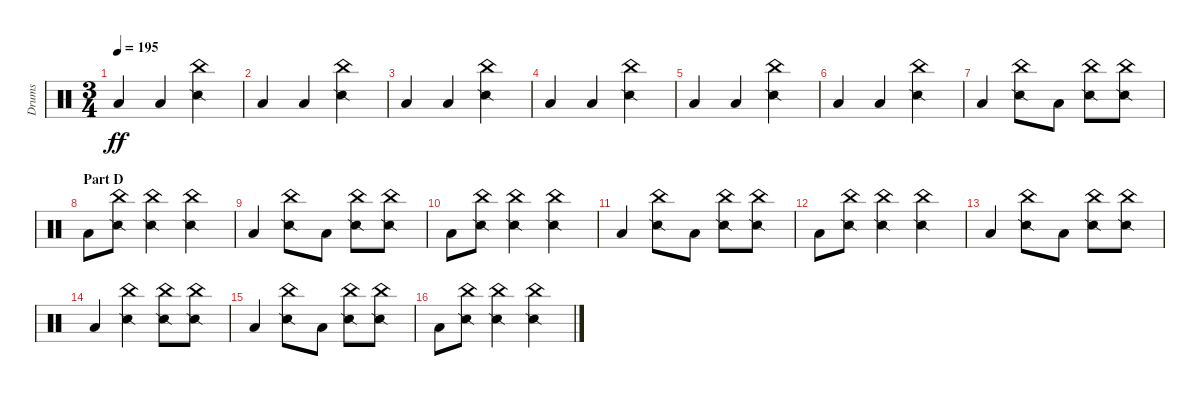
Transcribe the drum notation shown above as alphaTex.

\track ("Drums" "Drums") {instrument percussion}
\staff {score}
\articulation defaults
\ts (3 4)
\tempo 195
\clef neutral
\ks c "Low Floor Tom (hit)".4{dy ff} "Low Floor Tom (hit)".4
("China (hit)" "Snare (side stick) 2").4 |
"Low Floor Tom (hit)".4 "Low Floor Tom (hit)".4 ("China (hit)" "Snare (side stick) 2").4 |
"Low Floor Tom (hit)".4 "Low Floor Tom (hit)".4 ("China (hit)" "Snare (side stick) 2").4 |
"Low Floor Tom (hit)".4 "Low Floor Tom (hit)".4 ("China (hit)" "Snare (side stick) 2").4 |
"Low Floor Tom (hit)".4 "Low Floor Tom (hit)".4 ("China (hit)" "Snare (side stick) 2").4 |
"Low Floor Tom (hit)".4 "Low Floor Tom (hit)".4 ("China (hit)" "Snare (side stick) 2").4 |
"Low Floor Tom (hit)".4 ("China (hit)" "Snare (side stick) 2").8 "Low Floor Tom (hit)".8 ("China (hit)" "Snare (side stick) 2").8 ("China (hit)" "Snare (side stick) 2").8 |
\section ("" "Part D")
"Low Floor Tom (hit)".8 ("China (hit)" "Snare (side stick) 2").8 ("China (hit)" "Snare (side stick) 2").4 ("China (hit)" "Snare (side stick) 2").4 |
"Low Floor Tom (hit)".4 ("China (hit)" "Snare (side stick) 2").8 "Low Floor Tom (hit)".8 ("China (hit)" "Snare (side stick) 2").8 ("China (hit)" "Snare (side stick) 2").8 |
"Low Floor Tom (hit)".8 ("China (hit)" "Snare (side stick) 2").8 ("China (hit)" "Snare (side stick) 2").4 ("China (hit)" "Snare (side stick) 2").4 |
"Low Floor Tom (hit)".4 ("China (hit)" "Snare (side stick) 2").8 "Low Floor Tom (hit)".8 ("China (hit)" "Snare (side stick) 2").8 ("China (hit)" "Snare (side stick) 2").8 |
"Low Floor Tom (hit)".8 ("China (hit)" "Snare (side stick) 2").8 ("China (hit)" "Snare (side stick) 2").4 ("China (hit)" "Snare (side stick) 2").4 |
"Low Floor Tom (hit)".4 ("China (hit)" "Snare (side stick) 2").8 "Low Floor Tom (hit)".8 ("China (hit)" "Snare (side stick) 2").8 ("China (hit)" "Snare (side stick) 2").8 |
"Low Floor Tom (hit)".4 ("China (hit)" "Snare (side stick) 2").4 ("China (hit)" "Snare (side stick) 2").8 ("China (hit)" "Snare (side stick) 2").8 |
"Low Floor Tom (hit)".4 ("China (hit)" "Snare (side stick) 2").8 "Low Floor Tom (hit)".8 ("China (hit)" "Snare (side stick) 2").8 ("China (hit)" "Snare (side stick) 2").8 |
"Low Floor Tom (hit)".8 ("China (hit)" "Snare (side stick) 2").8 ("China (hit)" "Snare (side stick) 2").4 ("China (hit)" "Snare (side stick) 2").4
